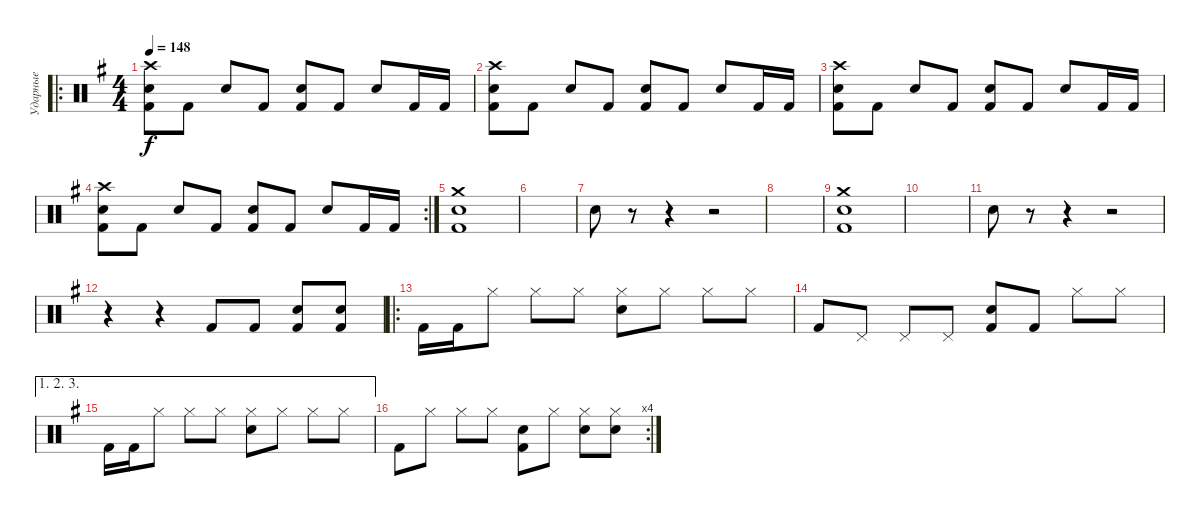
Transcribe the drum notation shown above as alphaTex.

\track ("Ударные" "Ударные") {instrument percussion}
\staff {score}
\articulation defaults
\ro
\ts (4 4)
\tempo 148
\clef neutral
\ks g
("Crash high (hit)" "Snare (hit) 2" "Kick (hit) 2").8{dy f} "Kick (hit) 2".8 "Snare (hit) 2".8 "Kick (hit) 2".8 ("Snare (hit) 2" "Kick (hit) 2").8 "Kick (hit) 2".8 "Snare (hit) 2".8 "Kick (hit) 2".16 "Kick (hit) 2".16 |
("Crash high (hit)" "Snare (hit) 2" "Kick (hit) 2").8 "Kick (hit) 2".8 "Snare (hit) 2".8 "Kick (hit) 2".8 ("Snare (hit) 2" "Kick (hit) 2").8 "Kick (hit) 2".8 "Snare (hit) 2".8 "Kick (hit) 2".16 "Kick (hit) 2".16 |
("Crash high (hit)" "Snare (hit) 2" "Kick (hit) 2").8 "Kick (hit) 2".8 "Snare (hit) 2".8 "Kick (hit) 2".8 ("Snare (hit) 2" "Kick (hit) 2").8 "Kick (hit) 2".8 "Snare (hit) 2".8 "Kick (hit) 2".16 "Kick (hit) 2".16 |
\rc 2
("Crash high (hit)" "Snare (hit) 2" "Kick (hit) 2").8 "Kick (hit) 2".8 "Snare (hit) 2".8 "Kick (hit) 2".8 ("Snare (hit) 2" "Kick (hit) 2").8 "Kick (hit) 2".8 "Snare (hit) 2".8 "Kick (hit) 2".16 "Kick (hit) 2".16 |
("Crash medium (hit)" "Snare (hit) 2" "Kick (hit) 2").1 |
|
"Snare (hit) 2".8 r.8 r.4 r.2 |
|
("Crash medium (hit)" "Snare (hit) 2" "Kick (hit) 2").1 |
|
"Electric Snare (hit)".8 r.8 r.4 r.2 |
r.4 r.4 "Kick (hit) 2".8 "Kick (hit) 2".8 ("Snare (hit) 2" "Kick (hit) 2").8 ("Snare (hit) 2" "Kick (hit) 2").8 |
\ro "Kick (hit) 2".16 "Kick (hit) 2".16 "Hi-Hat (closed)".8 "Hi-Hat (closed)".8 "Hi-Hat (closed)".8
("Snare (hit) 2" "Hi-Hat (closed)").8 "Hi-Hat (closed)".8 "Hi-Hat (closed)".8 "Hi-Hat (closed)".8 |
"Kick (hit) 2".8 "Pedal Hi-Hat (hit)".8 "Pedal Hi-Hat (hit)".8 "Pedal Hi-Hat (hit)".8 ("Electric Snare (hit)" "Kick (hit) 2").8 "Kick (hit) 2".8 "Hi-Hat (closed)".8 "Hi-Hat (closed)".8 |
\ae (1 2 3)
"Kick (hit) 2".16 "Kick (hit) 2".16 "Hi-Hat (closed)".8 "Hi-Hat (closed)".8 "Hi-Hat (closed)".8 ("Snare (hit) 2" "Hi-Hat (closed)").8 "Hi-Hat (closed)".8 "Hi-Hat (closed)".8 "Hi-Hat (closed)".8 |
\rc 4 "Kick (hit) 2".8 "Hi-Hat (closed)".8 "Hi-Hat (closed)".8 "Hi-Hat (closed)".8
("Electric Snare (hit)" "Kick (hit) 2").8 "Hi-Hat (closed)".8 ("Snare (hit) 2" "Hi-Hat (closed)").8 ("Snare (hit) 2" "Hi-Hat (closed)").8
